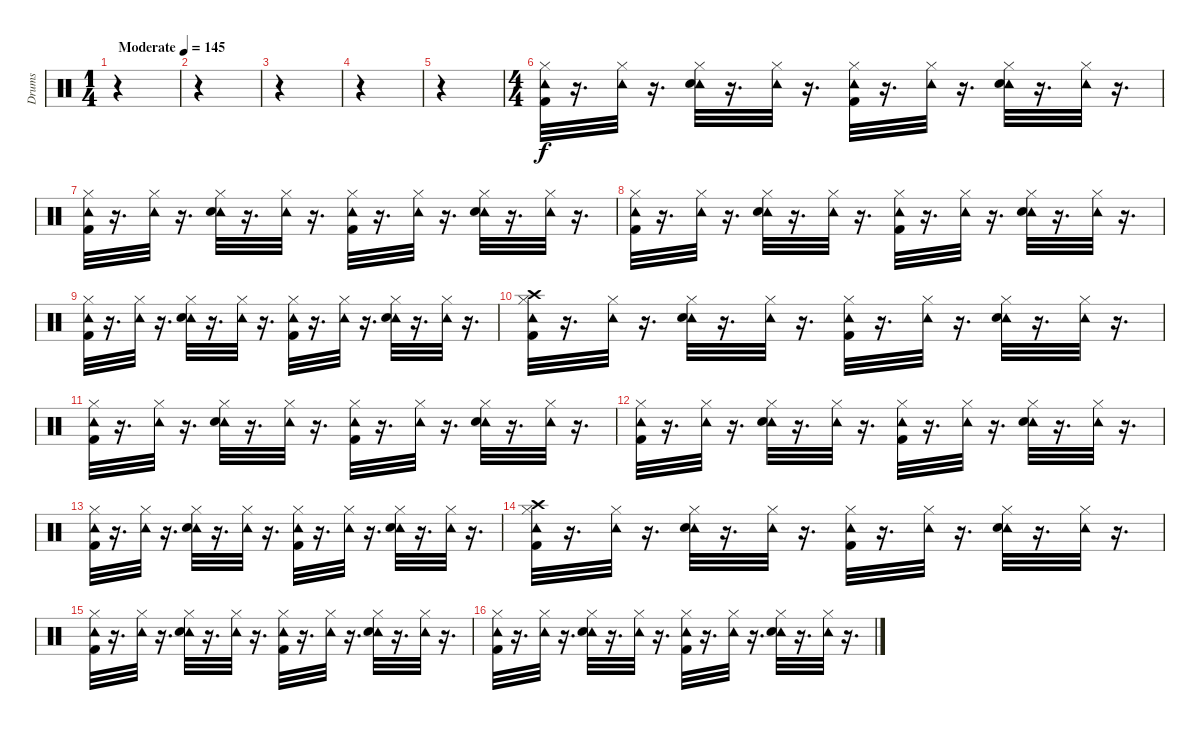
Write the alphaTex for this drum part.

\track ("Drums" "Drums") {instrument percussion}
\staff {score}
\articulation defaults
\ts (1 4)
\tempo (145 "Moderate")
\clef neutral
\ks c
r.4{dy f} |
r.4 |
r.4 |
r.4 |
r.4 |
\ts (4 4)
("Tambourine (hit)" "Kick (hit) 2" "Hi-Hat (closed)").32{balance 8} r.16{d} ("Tambourine (hit)" "Hi-Hat (closed)").32 r.16{d} ("Tambourine (hit)" "Hi-Hat (closed)" "Snare (hit) 2").32 r.16{d} ("Tambourine (hit)" "Hi-Hat (closed)").32 r.16{d} ("Tambourine (hit)" "Kick (hit) 2" "Hi-Hat (closed)").32 r.16{d} ("Tambourine (hit)" "Hi-Hat (closed)").32 r.16{d} ("Tambourine (hit)" "Snare (hit) 2" "Hi-Hat (closed)").32 r.16{d} ("Tambourine (hit)" "Hi-Hat (closed)").32 r.16{d} |
("Tambourine (hit)" "Kick (hit) 2" "Hi-Hat (closed)").32 r.16{d} ("Tambourine (hit)" "Hi-Hat (closed)").32 r.16{d} ("Tambourine (hit)" "Hi-Hat (closed)" "Snare (hit) 2").32 r.16{d} ("Tambourine (hit)" "Hi-Hat (closed)").32 r.16{d} ("Tambourine (hit)" "Kick (hit) 2" "Hi-Hat (closed)").32 r.16{d} ("Tambourine (hit)" "Hi-Hat (closed)").32 r.16{d} ("Tambourine (hit)" "Snare (hit) 2" "Hi-Hat (closed)").32 r.16{d} ("Tambourine (hit)" "Hi-Hat (closed)").32 r.16{d} |
("Tambourine (hit)" "Kick (hit) 2" "Hi-Hat (closed)").32 r.16{d} ("Tambourine (hit)" "Hi-Hat (closed)").32 r.16{d} ("Tambourine (hit)" "Hi-Hat (closed)" "Snare (hit) 2").32 r.16{d} ("Tambourine (hit)" "Hi-Hat (closed)").32 r.16{d} ("Tambourine (hit)" "Kick (hit) 2" "Hi-Hat (closed)").32 r.16{d} ("Tambourine (hit)" "Hi-Hat (closed)").32 r.16{d} ("Tambourine (hit)" "Snare (hit) 2" "Hi-Hat (closed)").32 r.16{d} ("Tambourine (hit)" "Hi-Hat (closed)").32 r.16{d} |
("Tambourine (hit)" "Kick (hit) 2" "Hi-Hat (closed)").32 r.16{d} ("Tambourine (hit)" "Hi-Hat (closed)").32 r.16{d} ("Tambourine (hit)" "Hi-Hat (closed)" "Snare (hit) 2").32 r.16{d} ("Tambourine (hit)" "Hi-Hat (closed)").32 r.16{d} ("Tambourine (hit)" "Kick (hit) 2" "Hi-Hat (closed)").32 r.16{d} ("Tambourine (hit)" "Hi-Hat (closed)").32 r.16{d} ("Tambourine (hit)" "Snare (hit) 2" "Hi-Hat (closed)").32 r.16{d} ("Tambourine (hit)" "Hi-Hat (closed)").32 r.16{d} |
("Tambourine (hit)" "Kick (hit) 2" "Hi-Hat (closed)" "Crash high (hit)").32 r.16{d} ("Tambourine (hit)" "Hi-Hat (closed)").32 r.16{d} ("Tambourine (hit)" "Hi-Hat (closed)" "Snare (hit) 2").32 r.16{d} ("Tambourine (hit)" "Hi-Hat (closed)").32 r.16{d} ("Tambourine (hit)" "Kick (hit) 2" "Hi-Hat (closed)").32 r.16{d} ("Tambourine (hit)" "Hi-Hat (closed)").32 r.16{d} ("Tambourine (hit)" "Snare (hit) 2" "Hi-Hat (closed)").32 r.16{d} ("Tambourine (hit)" "Hi-Hat (closed)").32 r.16{d} |
("Tambourine (hit)" "Kick (hit) 2" "Hi-Hat (closed)").32 r.16{d} ("Tambourine (hit)" "Hi-Hat (closed)").32 r.16{d} ("Tambourine (hit)" "Hi-Hat (closed)" "Snare (hit) 2").32 r.16{d} ("Tambourine (hit)" "Hi-Hat (closed)").32 r.16{d} ("Tambourine (hit)" "Kick (hit) 2" "Hi-Hat (closed)").32 r.16{d} ("Tambourine (hit)" "Hi-Hat (closed)").32 r.16{d} ("Tambourine (hit)" "Snare (hit) 2" "Hi-Hat (closed)").32 r.16{d} ("Tambourine (hit)" "Hi-Hat (closed)").32 r.16{d} |
("Tambourine (hit)" "Kick (hit) 2" "Hi-Hat (closed)").32 r.16{d} ("Tambourine (hit)" "Hi-Hat (closed)").32 r.16{d} ("Tambourine (hit)" "Hi-Hat (closed)" "Snare (hit) 2").32 r.16{d} ("Tambourine (hit)" "Hi-Hat (closed)").32 r.16{d} ("Tambourine (hit)" "Kick (hit) 2" "Hi-Hat (closed)").32 r.16{d} ("Tambourine (hit)" "Hi-Hat (closed)").32 r.16{d} ("Tambourine (hit)" "Snare (hit) 2" "Hi-Hat (closed)").32 r.16{d} ("Tambourine (hit)" "Hi-Hat (closed)").32 r.16{d} |
("Tambourine (hit)" "Kick (hit) 2" "Hi-Hat (closed)").32 r.16{d} ("Tambourine (hit)" "Hi-Hat (closed)").32 r.16{d} ("Tambourine (hit)" "Hi-Hat (closed)" "Snare (hit) 2").32 r.16{d} ("Tambourine (hit)" "Hi-Hat (closed)").32 r.16{d} ("Tambourine (hit)" "Kick (hit) 2" "Hi-Hat (closed)").32 r.16{d} ("Tambourine (hit)" "Hi-Hat (closed)").32 r.16{d} ("Tambourine (hit)" "Snare (hit) 2" "Hi-Hat (closed)").32 r.16{d} ("Tambourine (hit)" "Hi-Hat (closed)").32 r.16{d} |
("Tambourine (hit)" "Kick (hit) 2" "Hi-Hat (closed)" "Crash high (hit)").32 r.16{d} ("Tambourine (hit)" "Hi-Hat (closed)").32 r.16{d} ("Tambourine (hit)" "Hi-Hat (closed)" "Snare (hit) 2").32 r.16{d} ("Tambourine (hit)" "Hi-Hat (closed)").32 r.16{d} ("Tambourine (hit)" "Kick (hit) 2" "Hi-Hat (closed)").32 r.16{d} ("Tambourine (hit)" "Hi-Hat (closed)").32 r.16{d} ("Tambourine (hit)" "Snare (hit) 2" "Hi-Hat (closed)").32 r.16{d} ("Tambourine (hit)" "Hi-Hat (closed)").32 r.16{d} |
("Tambourine (hit)" "Kick (hit) 2" "Hi-Hat (closed)").32 r.16{d} ("Tambourine (hit)" "Hi-Hat (closed)").32 r.16{d} ("Tambourine (hit)" "Hi-Hat (closed)" "Snare (hit) 2").32 r.16{d} ("Tambourine (hit)" "Hi-Hat (closed)").32 r.16{d} ("Tambourine (hit)" "Kick (hit) 2" "Hi-Hat (closed)").32 r.16{d} ("Tambourine (hit)" "Hi-Hat (closed)").32 r.16{d} ("Tambourine (hit)" "Snare (hit) 2" "Hi-Hat (closed)").32 r.16{d} ("Tambourine (hit)" "Hi-Hat (closed)").32 r.16{d} |
("Tambourine (hit)" "Kick (hit) 2" "Hi-Hat (closed)").32 r.16{d} ("Tambourine (hit)" "Hi-Hat (closed)").32 r.16{d} ("Tambourine (hit)" "Hi-Hat (closed)" "Snare (hit) 2").32 r.16{d} ("Tambourine (hit)" "Hi-Hat (closed)").32 r.16{d} ("Tambourine (hit)" "Kick (hit) 2" "Hi-Hat (closed)").32 r.16{d} ("Tambourine (hit)" "Hi-Hat (closed)").32 r.16{d} ("Tambourine (hit)" "Snare (hit) 2" "Hi-Hat (closed)").32 r.16{d} ("Tambourine (hit)" "Hi-Hat (closed)").32 r.16{d}
